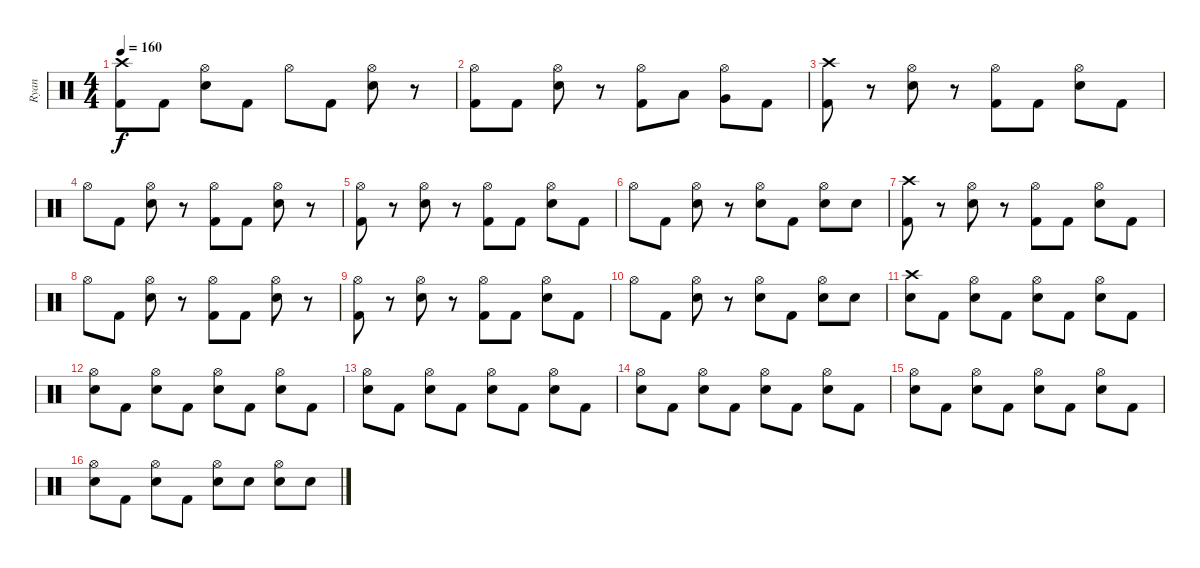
\track ("Ryan" "Ryan") {instrument percussion}
\staff {score}
\articulation defaults
\ts (4 4)
\tempo 160
\clef neutral
\ks c
("Crash high (hit)" "Kick (hit) 2").8{dy f} "Kick (hit) 2".8 ("Hi-Hat (open)" "Snare (hit) 2").8 "Kick (hit) 2".8 "Hi-Hat (open)".8 "Kick (hit) 2".8 ("Hi-Hat (open)" "Snare (hit) 2").8 r.8 |
("Hi-Hat (open)" "Kick (hit) 2").8 "Kick (hit) 2".8 ("Hi-Hat (open)" "Snare (hit) 2").8 r.8 ("Hi-Hat (open)" "Kick (hit) 2").8 "Low Tom (hit)".8 ("Hi-Hat (open)" "Very Low Tom (hit)").8 "Kick (hit) 2".8 |
("Crash high (hit)" "Kick (hit) 2").8 r.8 ("Hi-Hat (open)" "Snare (hit) 2").8 r.8 ("Hi-Hat (open)" "Kick (hit) 2").8 "Kick (hit) 2".8 ("Hi-Hat (open)" "Snare (hit) 2").8 "Kick (hit) 2".8 |
"Hi-Hat (open)".8 "Kick (hit) 2".8 ("Hi-Hat (open)" "Snare (hit) 2").8 r.8 ("Hi-Hat (open)" "Kick (hit) 2").8 "Kick (hit) 2".8 ("Hi-Hat (open)" "Snare (hit) 2").8 r.8 |
("Hi-Hat (open)" "Kick (hit) 2").8 r.8 ("Hi-Hat (open)" "Snare (hit) 2").8 r.8 ("Hi-Hat (open)" "Kick (hit) 2").8 "Kick (hit) 2".8 ("Hi-Hat (open)" "Snare (hit) 2").8 "Kick (hit) 2".8 |
"Hi-Hat (open)".8 "Kick (hit) 2".8 ("Hi-Hat (open)" "Snare (hit) 2").8 r.8 ("Hi-Hat (open)" "Snare (hit) 2").8 "Kick (hit) 2".8 ("Hi-Hat (open)" "Snare (hit) 2").8 "Snare (hit) 2".8 |
("Crash high (hit)" "Kick (hit) 2").8 r.8 ("Hi-Hat (open)" "Snare (hit) 2").8 r.8 ("Hi-Hat (open)" "Kick (hit) 2").8 "Kick (hit) 2".8 ("Hi-Hat (open)" "Snare (hit) 2").8 "Kick (hit) 2".8 |
"Hi-Hat (open)".8 "Kick (hit) 2".8 ("Hi-Hat (open)" "Snare (hit) 2").8 r.8 ("Hi-Hat (open)" "Kick (hit) 2").8 "Kick (hit) 2".8 ("Hi-Hat (open)" "Snare (hit) 2").8 r.8 |
("Hi-Hat (open)" "Kick (hit) 2").8 r.8 ("Hi-Hat (open)" "Snare (hit) 2").8 r.8 ("Hi-Hat (open)" "Kick (hit) 2").8 "Kick (hit) 2".8 ("Hi-Hat (open)" "Snare (hit) 2").8 "Kick (hit) 2".8 |
"Hi-Hat (open)".8 "Kick (hit) 2".8 ("Hi-Hat (open)" "Snare (hit) 2").8 r.8 ("Hi-Hat (open)" "Snare (hit) 2").8 "Kick (hit) 2".8 ("Hi-Hat (open)" "Snare (hit) 2").8 "Snare (hit) 2".8 |
("Crash high (hit)" "Snare (hit) 2").8 "Kick (hit) 2".8 ("Hi-Hat (open)" "Snare (hit) 2").8 "Kick (hit) 2".8 ("Hi-Hat (open)" "Snare (hit) 2").8 "Kick (hit) 2".8 ("Hi-Hat (open)" "Snare (hit) 2").8 "Kick (hit) 2".8 |
("Hi-Hat (open)" "Snare (hit) 2").8 "Kick (hit) 2".8 ("Hi-Hat (open)" "Snare (hit) 2").8 "Kick (hit) 2".8 ("Hi-Hat (open)" "Snare (hit) 2").8 "Kick (hit) 2".8 ("Hi-Hat (open)" "Snare (hit) 2").8 "Kick (hit) 2".8 |
("Hi-Hat (open)" "Snare (hit) 2").8 "Kick (hit) 2".8 ("Hi-Hat (open)" "Snare (hit) 2").8 "Kick (hit) 2".8 ("Hi-Hat (open)" "Snare (hit) 2").8 "Kick (hit) 2".8 ("Hi-Hat (open)" "Snare (hit) 2").8 "Kick (hit) 2".8 |
("Hi-Hat (open)" "Snare (hit) 2").8 "Kick (hit) 2".8 ("Hi-Hat (open)" "Snare (hit) 2").8 "Kick (hit) 2".8 ("Hi-Hat (open)" "Snare (hit) 2").8 "Kick (hit) 2".8 ("Hi-Hat (open)" "Snare (hit) 2").8 "Kick (hit) 2".8 |
("Hi-Hat (open)" "Snare (hit) 2").8 "Kick (hit) 2".8 ("Hi-Hat (open)" "Snare (hit) 2").8 "Kick (hit) 2".8 ("Hi-Hat (open)" "Snare (hit) 2").8 "Kick (hit) 2".8 ("Hi-Hat (open)" "Snare (hit) 2").8 "Kick (hit) 2".8 |
("Hi-Hat (open)" "Snare (hit) 2").8 "Kick (hit) 2".8 ("Hi-Hat (open)" "Snare (hit) 2").8 "Kick (hit) 2".8 ("Hi-Hat (open)" "Snare (hit) 2").8 "Snare (hit) 2".8 ("Hi-Hat (open)" "Snare (hit) 2").8 "Snare (hit) 2".8
